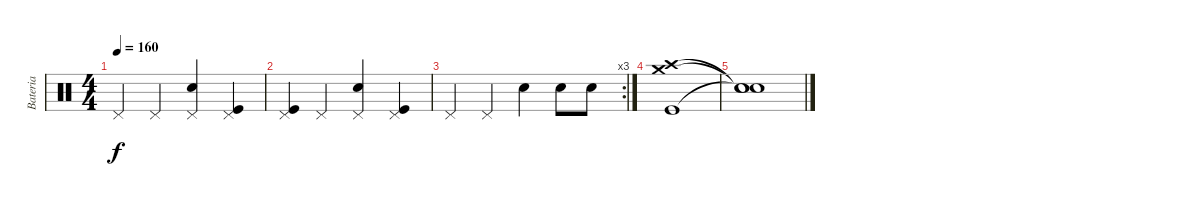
\track ("Bateria" "Bateria") {instrument percussion}
\staff {score}
\articulation defaults
\ts (4 4)
\tempo 160
\clef neutral
\ks c "Pedal Hi-Hat (hit)".4{dy f} "Pedal Hi-Hat (hit)".4
("Snare (hit) 2" "Pedal Hi-Hat (hit)").4 ("Kick (hit)" "Pedal Hi-Hat (hit)").4 |
("Kick (hit)" "Pedal Hi-Hat (hit)").4 "Pedal Hi-Hat (hit)".4 ("Snare (hit) 2" "Pedal Hi-Hat (hit)").4 ("Kick (hit)" "Pedal Hi-Hat (hit)").4 |
\rc 3 "Pedal Hi-Hat (hit)".4 "Pedal Hi-Hat (hit)".4 "Snare (hit) 2".4 "Snare (hit) 2".8 "Snare (hit) 2".8
|
("Crash medium (hit)" "Kick (hit)" "Crash high (hit)").1 |
("Snare (hit)"{t} "Snare (hit)"{t} "Snare (hit)"{t}).1
